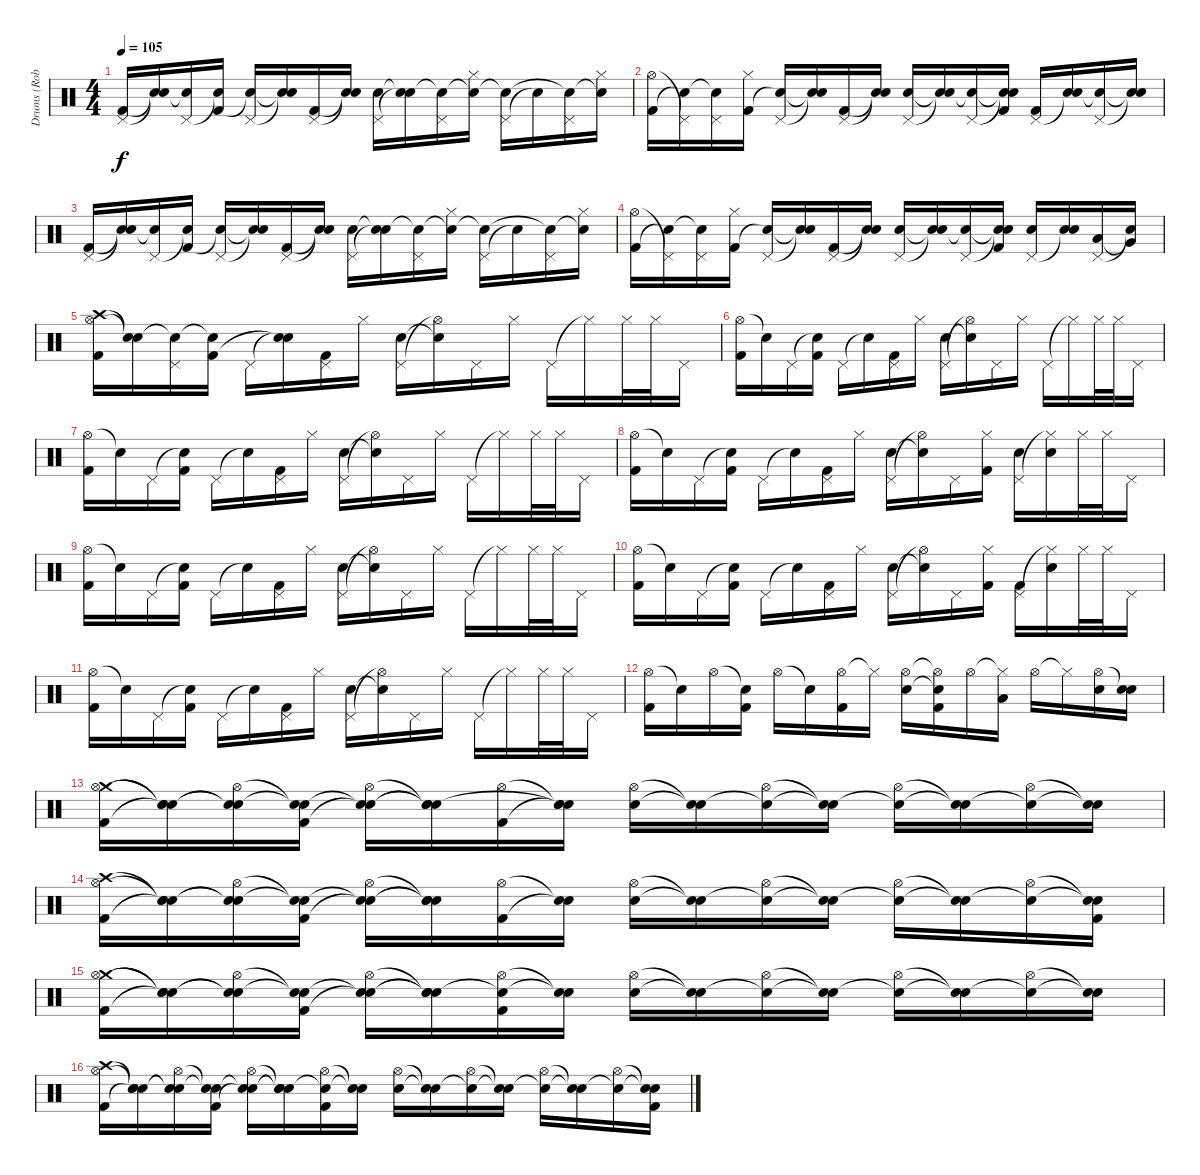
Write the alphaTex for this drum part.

\track ("Drums (Rob Bourdon)" "Drums (Rob") {instrument percussion}
\staff {score}
\articulation defaults
\ts (4 4)
\tempo 105
\clef neutral
\ks c
("Pedal Hi-Hat (hit)" "Kick (hit) 2").16{dy f} ("Snare (hit)"{t} "Snare (hit)"{t}).16 ("Pedal Hi-Hat (hit)" "Snare (hit)"{t}).16 ("Snare (hit)"{t} "Kick (hit) 2").16 ("Pedal Hi-Hat (hit)" "Snare (hit)"{t}).16 ("Snare (hit)"{t} "Snare (hit)"{t}).16 ("Pedal Hi-Hat (hit)" "Kick (hit) 2").16 ("Snare (hit)"{t} "Snare (hit)"{t}).16 ("Pedal Hi-Hat (hit)" "Electric Snare (hit)").16 ("Snare (hit)"{t} "Snare (hit)"{t}).16 ("Pedal Hi-Hat (hit)" "Snare (hit)"{t}).16 ("Hi-Hat (closed)" "Snare (hit)"{t}).16 ("Pedal Hi-Hat (hit)" "Snare (hit)"{t}).16 "Snare (hit)"{t}.16 ("Pedal Hi-Hat (hit)" "Snare (hit)"{t}).16 ("Hi-Hat (closed)" "Snare (hit)"{t}).16 |
("Hi-Hat (open)" "Kick (hit) 2").16 ("Pedal Hi-Hat (hit)"{t} "Snare (hit)"{t}).16 ("Pedal Hi-Hat (hit)" "Snare (hit)"{t}).16 ("Hi-Hat (closed)" "Kick (hit) 2").16 ("Pedal Hi-Hat (hit)" "Snare (hit)"{t}).16 ("Snare (hit)"{t} "Snare (hit)"{t}).16 ("Pedal Hi-Hat (hit)" "Kick (hit) 2").16 ("Snare (hit)"{t} "Snare (hit)"{t}).16 ("Pedal Hi-Hat (hit)" "Electric Snare (hit)").16 ("Snare (hit)"{t} "Snare (hit)"{t}).16 ("Pedal Hi-Hat (hit)" "Snare (hit)"{t}).16 ("Snare (hit)"{t} "Snare (hit)"{t} "Kick (hit) 2").16 ("Pedal Hi-Hat (hit)" "Kick (hit) 2").16 ("Snare (hit)"{t} "Electric Snare (hit)").16 ("Pedal Hi-Hat (hit)" "Electric Snare (hit)"{t}).16 ("Snare (hit)"{t} "Snare (hit)"{t}).16 |
("Pedal Hi-Hat (hit)" "Kick (hit) 2").16 ("Snare (hit)"{t} "Snare (hit)"{t}).16 ("Pedal Hi-Hat (hit)" "Snare (hit)"{t}).16 ("Snare (hit)"{t} "Kick (hit) 2").16 ("Pedal Hi-Hat (hit)" "Snare (hit)"{t}).16 ("Snare (hit)"{t} "Snare (hit)"{t}).16 ("Pedal Hi-Hat (hit)" "Kick (hit) 2").16 ("Snare (hit)"{t} "Snare (hit)"{t}).16 ("Pedal Hi-Hat (hit)" "Electric Snare (hit)").16 ("Snare (hit)"{t} "Snare (hit)"{t}).16 ("Pedal Hi-Hat (hit)" "Snare (hit)"{t}).16 ("Hi-Hat (closed)" "Snare (hit)"{t}).16 ("Pedal Hi-Hat (hit)" "Snare (hit)"{t}).16 "Snare (hit)"{t}.16 ("Pedal Hi-Hat (hit)" "Snare (hit)"{t}).16 ("Hi-Hat (closed)" "Snare (hit)"{t}).16 |
("Hi-Hat (open)" "Kick (hit) 2").16 ("Pedal Hi-Hat (hit)"{t} "Snare (hit)"{t}).16 ("Pedal Hi-Hat (hit)" "Snare (hit)"{t}).16 ("Hi-Hat (closed)" "Kick (hit) 2").16 ("Pedal Hi-Hat (hit)" "Snare (hit)"{t}).16 ("Snare (hit)"{t} "Snare (hit)"{t}).16 ("Pedal Hi-Hat (hit)" "Kick (hit) 2").16 ("Snare (hit)"{t} "Snare (hit)"{t}).16 ("Pedal Hi-Hat (hit)" "Electric Snare (hit)").16 ("Snare (hit)"{t} "Snare (hit)"{t}).16 ("Pedal Hi-Hat (hit)" "Snare (hit)"{t}).16 ("Snare (hit)"{t} "Snare (hit)"{t} "Kick (hit) 2").16 ("Pedal Hi-Hat (hit)" "Electric Snare (hit)").16 ("Snare (hit)"{t} "Electric Snare (hit)").16 ("Pedal Hi-Hat (hit)" "Low Tom (hit)").16 ("Snare (hit)"{t} "Very Low Tom (hit)"{t}).16 |
("Crash high (hit)" "Hi-Hat (open)" "Kick (hit) 2").16 ("Snare (hit)"{t} "Snare (hit)"{t}).16 ("Snare (hit)"{t} "Pedal Hi-Hat (hit)").16 ("Snare (hit)"{t} "Kick (hit) 2").16 "Pedal Hi-Hat (hit)".16 ("Snare (hit)"{t} "Snare (hit)"{t}).16 ("Pedal Hi-Hat (hit)" "Kick (hit) 2").16 "Hi-Hat (closed)".16 ("Pedal Hi-Hat (hit)" "Electric Snare (hit)").16 ("Hi-Hat (open)"{t} "Snare (hit)"{t}).16 "Pedal Hi-Hat (hit)".16 "Hi-Hat (closed)".16 "Pedal Hi-Hat (hit)".16 "Hi-Hat (closed)"{t}.16 "Hi-Hat (closed)".32 "Hi-Hat (closed)".32 "Pedal Hi-Hat (hit)".16 |
("Hi-Hat (open)" "Kick (hit) 2").16 "Snare (hit)"{t}.16 "Pedal Hi-Hat (hit)".16 ("Snare (hit)"{t} "Kick (hit) 2").16 "Pedal Hi-Hat (hit)".16 "Snare (hit)"{t}.16 ("Pedal Hi-Hat (hit)" "Kick (hit) 2").16 "Hi-Hat (closed)".16 ("Pedal Hi-Hat (hit)" "Electric Snare (hit)").16 ("Hi-Hat (open)"{t} "Snare (hit)"{t}).16 "Pedal Hi-Hat (hit)".16 "Hi-Hat (closed)".16 "Pedal Hi-Hat (hit)".16 "Hi-Hat (closed)"{t}.16 "Hi-Hat (closed)".32 "Hi-Hat (closed)".32 "Pedal Hi-Hat (hit)".16 |
("Hi-Hat (open)" "Kick (hit) 2").16 "Snare (hit)"{t}.16 "Pedal Hi-Hat (hit)".16 ("Snare (hit)"{t} "Kick (hit) 2").16 "Pedal Hi-Hat (hit)".16 "Snare (hit)"{t}.16 ("Pedal Hi-Hat (hit)" "Kick (hit) 2").16 "Hi-Hat (closed)".16 ("Pedal Hi-Hat (hit)" "Electric Snare (hit)").16 ("Hi-Hat (open)"{t} "Snare (hit)"{t}).16 "Pedal Hi-Hat (hit)".16 "Hi-Hat (closed)".16 "Pedal Hi-Hat (hit)".16 "Hi-Hat (closed)"{t}.16 "Hi-Hat (closed)".32 "Hi-Hat (closed)".32 "Pedal Hi-Hat (hit)".16 |
("Hi-Hat (open)" "Kick (hit) 2").16 "Snare (hit)"{t}.16 "Pedal Hi-Hat (hit)".16 ("Snare (hit)"{t} "Kick (hit) 2").16 "Pedal Hi-Hat (hit)".16 "Snare (hit)"{t}.16 ("Pedal Hi-Hat (hit)" "Kick (hit) 2").16 "Hi-Hat (closed)".16 ("Pedal Hi-Hat (hit)" "Electric Snare (hit)").16 ("Hi-Hat (open)"{t} "Snare (hit)"{t}).16 "Pedal Hi-Hat (hit)".16 ("Hi-Hat (closed)" "Kick (hit) 2").16 ("Pedal Hi-Hat (hit)" "Electric Snare (hit)").16 ("Hi-Hat (closed)"{t} "Electric Snare (hit)").16 "Hi-Hat (closed)".32 "Hi-Hat (closed)".32 "Pedal Hi-Hat (hit)".16 |
("Hi-Hat (open)" "Kick (hit) 2").16 "Snare (hit)"{t}.16 "Pedal Hi-Hat (hit)".16 ("Snare (hit)"{t} "Kick (hit) 2").16 "Pedal Hi-Hat (hit)".16 "Snare (hit)"{t}.16 ("Pedal Hi-Hat (hit)" "Kick (hit) 2").16 "Hi-Hat (closed)".16 ("Pedal Hi-Hat (hit)" "Electric Snare (hit)").16 ("Hi-Hat (open)"{t} "Snare (hit)"{t}).16 "Pedal Hi-Hat (hit)".16 "Hi-Hat (closed)".16 "Pedal Hi-Hat (hit)".16 "Hi-Hat (closed)"{t}.16 "Hi-Hat (closed)".32 "Hi-Hat (closed)".32 "Pedal Hi-Hat (hit)".16 |
("Hi-Hat (open)" "Kick (hit) 2").16 "Snare (hit)"{t}.16 "Pedal Hi-Hat (hit)".16 ("Snare (hit)"{t} "Kick (hit) 2").16 "Pedal Hi-Hat (hit)".16 "Snare (hit)"{t}.16 ("Pedal Hi-Hat (hit)" "Kick (hit) 2").16 "Hi-Hat (closed)".16 ("Pedal Hi-Hat (hit)" "Electric Snare (hit)").16 ("Hi-Hat (open)"{t} "Snare (hit)"{t}).16 "Pedal Hi-Hat (hit)".16 ("Hi-Hat (closed)" "Kick (hit) 2").16 ("Pedal Hi-Hat (hit)" "Kick (hit) 2").16 ("Hi-Hat (closed)"{t} "Electric Snare (hit)").16 "Hi-Hat (closed)".32 "Hi-Hat (closed)".32 "Pedal Hi-Hat (hit)".16 |
("Hi-Hat (open)" "Kick (hit) 2").16 "Snare (hit)"{t}.16 "Pedal Hi-Hat (hit)".16 ("Snare (hit)"{t} "Kick (hit) 2").16 "Pedal Hi-Hat (hit)".16 "Snare (hit)"{t}.16 ("Pedal Hi-Hat (hit)" "Kick (hit) 2").16 "Hi-Hat (closed)".16 ("Pedal Hi-Hat (hit)" "Electric Snare (hit)").16 ("Hi-Hat (open)"{t} "Snare (hit)"{t}).16 "Pedal Hi-Hat (hit)".16 "Hi-Hat (closed)".16 "Pedal Hi-Hat (hit)".16 "Hi-Hat (closed)"{t}.16 "Hi-Hat (closed)".32 "Hi-Hat (closed)".32 "Pedal Hi-Hat (hit)".16 |
("Hi-Hat (open)" "Kick (hit) 2").16 "Snare (hit)"{t}.16 "Hi-Hat (open)".16 ("Snare (hit)"{t} "Kick (hit) 2").16 "Hi-Hat (open)".16 "Snare (hit)"{t}.16 ("Hi-Hat (open)" "Kick (hit) 2").16 "Hi-Hat (closed)"{t}.16 ("Hi-Hat (open)" "Electric Snare (hit)").16 ("Hi-Hat (open)"{t} "Snare (hit)"{t} "Kick (hit) 2").16 "Hi-Hat (open)".16 ("Hi-Hat (closed)"{t} "Low Tom (hit)").16 "Hi-Hat (open)".16 "Hi-Hat (closed)"{t}.16 ("Hi-Hat (open)" "Electric Snare (hit)").16 ("Snare (hit)"{t} "Electric Snare (hit)").16 |
("Crash medium (hit)" "Hi-Hat (open)" "Kick (hit) 2").16 ("Snare (hit)"{t} "Snare (hit)"{t} "Snare (hit)"{t}).16 ("Snare (hit)"{t} "Hi-Hat (open)" "Snare (hit)"{t}).16 ("Snare (hit)"{t} "Snare (hit)"{t} "Kick (hit) 2").16 ("Snare (hit)"{t} "Hi-Hat (open)" "Snare (hit)"{t}).16 ("Snare (hit)"{t} "Snare (hit)"{t} "Snare (hit)"{t}).16 ("Hi-Hat (open)" "Kick (hit) 2").16 ("Snare (hit)"{t} "Snare (hit)"{t} "Snare (hit)"{t}).16 ("Hi-Hat (open)" "Electric Snare (hit)").16 ("Snare (hit)"{t} "Snare (hit)"{t}).16 ("Hi-Hat (open)" "Snare (hit)"{t}).16 ("Snare (hit)"{t} "Snare (hit)"{t}).16 ("Hi-Hat (open)" "Snare (hit)"{t}).16 ("Snare (hit)"{t} "Snare (hit)"{t}).16 ("Hi-Hat (open)" "Snare (hit)"{t}).16 ("Snare (hit)"{t} "Snare (hit)"{t}).16 |
("Crash high (hit)" "Hi-Hat (open)" "Kick (hit) 2").16 ("Snare (hit)"{t} "Snare (hit)"{t} "Snare (hit)"{t}).16 ("Snare (hit)"{t} "Hi-Hat (open)" "Snare (hit)"{t}).16 ("Snare (hit)"{t} "Snare (hit)"{t} "Kick (hit) 2").16 ("Snare (hit)"{t} "Hi-Hat (open)" "Snare (hit)"{t}).16 ("Snare (hit)"{t} "Snare (hit)"{t} "Snare (hit)"{t}).16 ("Hi-Hat (open)" "Kick (hit) 2").16 ("Snare (hit)"{t} "Snare (hit)"{t}).16 ("Hi-Hat (open)" "Electric Snare (hit)").16 ("Snare (hit)"{t} "Snare (hit)"{t}).16 ("Hi-Hat (open)" "Snare (hit)"{t}).16 ("Snare (hit)"{t} "Snare (hit)"{t}).16 ("Hi-Hat (open)" "Snare (hit)"{t}).16 ("Snare (hit)"{t} "Snare (hit)"{t}).16 ("Hi-Hat (open)" "Snare (hit)"{t}).16 ("Snare (hit)"{t} "Snare (hit)"{t} "Kick (hit) 2").16 |
("Crash medium (hit)" "Hi-Hat (open)" "Kick (hit) 2").16 ("Snare (hit)"{t} "Snare (hit)"{t} "Snare (hit)"{t}).16 ("Snare (hit)"{t} "Hi-Hat (open)" "Snare (hit)"{t}).16 ("Snare (hit)"{t} "Snare (hit)"{t} "Kick (hit) 2").16 ("Snare (hit)"{t} "Hi-Hat (open)" "Snare (hit)"{t}).16 ("Snare (hit)"{t} "Snare (hit)"{t} "Snare (hit)"{t}).16 ("Snare (hit)"{t} "Hi-Hat (open)" "Kick (hit) 2").16 ("Snare (hit)"{t} "Snare (hit)"{t}).16 ("Hi-Hat (open)" "Electric Snare (hit)").16 ("Snare (hit)"{t} "Snare (hit)"{t}).16 ("Hi-Hat (open)" "Snare (hit)"{t}).16 ("Snare (hit)"{t} "Snare (hit)"{t}).16 ("Hi-Hat (open)" "Snare (hit)"{t}).16 ("Snare (hit)"{t} "Snare (hit)"{t}).16 ("Hi-Hat (open)" "Snare (hit)"{t}).16 ("Snare (hit)"{t} "Snare (hit)"{t}).16 |
("Crash high (hit)" "Hi-Hat (open)" "Kick (hit) 2").16 ("Snare (hit)"{t} "Snare (hit)"{t} "Snare (hit)"{t}).16 ("Snare (hit)"{t} "Hi-Hat (open)" "Snare (hit)"{t}).16 ("Snare (hit)"{t} "Snare (hit)"{t} "Kick (hit) 2").16 ("Snare (hit)"{t} "Hi-Hat (open)" "Snare (hit)"{t}).16 ("Snare (hit)"{t} "Snare (hit)"{t} "Snare (hit)"{t}).16 ("Snare (hit)"{t} "Hi-Hat (open)" "Kick (hit) 2").16 ("Snare (hit)"{t} "Snare (hit)"{t}).16 ("Hi-Hat (open)" "Electric Snare (hit)").16 ("Snare (hit)"{t} "Snare (hit)"{t}).16 ("Hi-Hat (open)" "Snare (hit)"{t}).16 ("Snare (hit)"{t} "Snare (hit)"{t}).16 ("Hi-Hat (open)" "Snare (hit)"{t}).16 ("Snare (hit)"{t} "Snare (hit)"{t}).16 ("Hi-Hat (open)" "Snare (hit)"{t}).16 ("Snare (hit)"{t} "Snare (hit)"{t} "Kick (hit) 2").16
